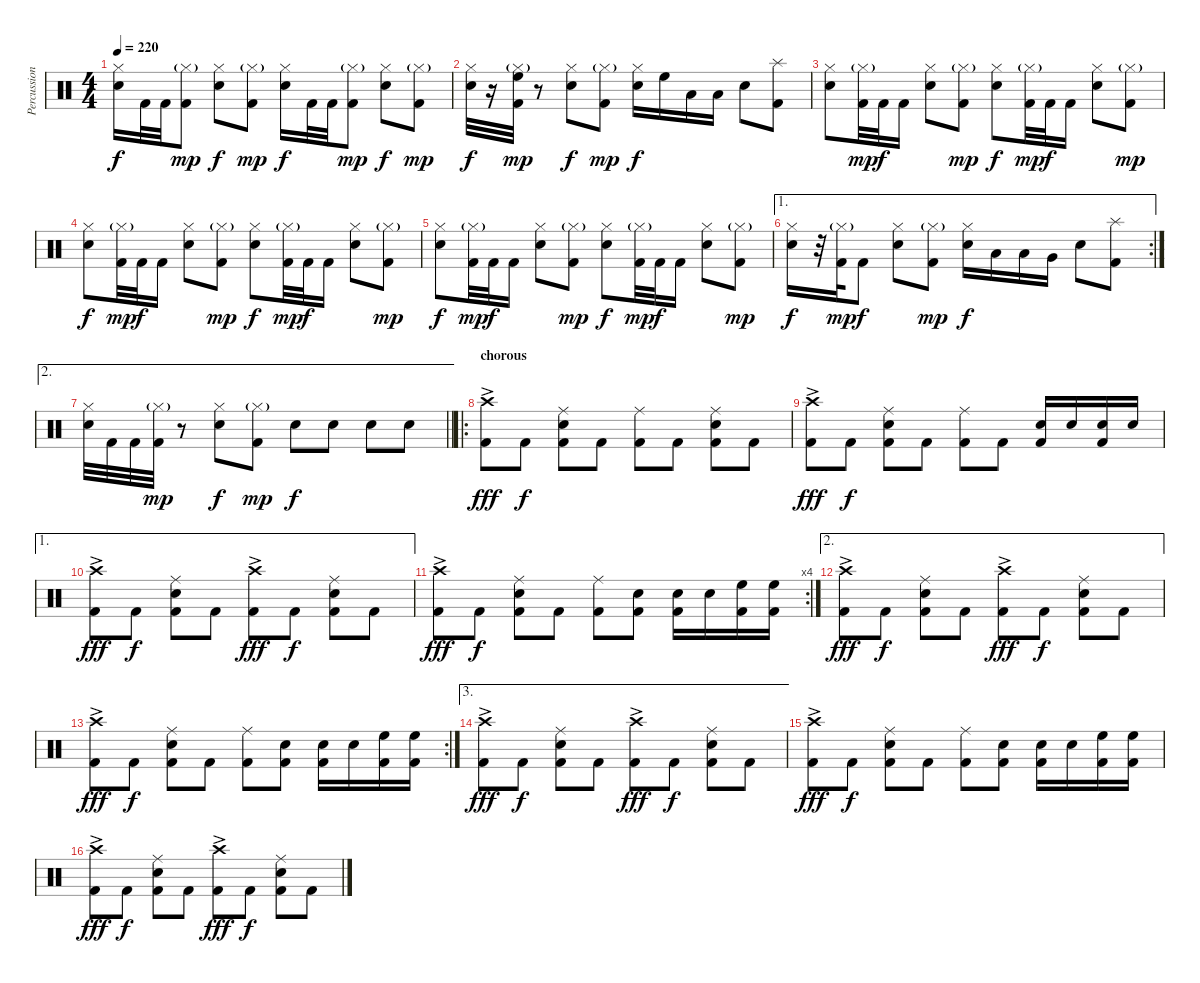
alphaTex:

\track ("Percussion" "Percussion") {instrument percussion}
\staff {score}
\articulation defaults
\ts (4 4)
\tempo 220
\clef neutral
\ks c
("Hi-Hat (closed)" "Electric Snare (hit)").16{dy f} "Kick (hit) 2".32 "Kick (hit) 2".32 ("Hi-Hat (closed)"{g} "Kick (hit) 2").8{dy mp} ("Hi-Hat (closed)" "Electric Snare (hit)").8{dy f} ("Hi-Hat (closed)"{g} "Kick (hit) 2").8{dy mp} ("Hi-Hat (closed)" "Electric Snare (hit)").16{dy f} "Kick (hit) 2".32 "Kick (hit) 2".32 ("Hi-Hat (closed)"{g} "Kick (hit) 2").8{dy mp} ("Hi-Hat (closed)" "Electric Snare (hit)").8{dy f} ("Hi-Hat (closed)"{g} "Kick (hit) 2").8{dy mp} |
("Hi-Hat (closed)" "Electric Snare (hit)").32{dy f} r.16 ("Hi-Hat (closed)"{g} "High Floor Tom (hit)" "Kick (hit) 2").32{dy mp} r.8 ("Hi-Hat (closed)" "Electric Snare (hit)").8{dy f} ("Hi-Hat (closed)"{g} "Kick (hit) 2").8{dy mp} ("Hi-Hat (closed)" "Electric Snare (hit)").16{dy f} "High Floor Tom (hit)".16 "Low Tom (hit)".16 "Low Tom (hit)".16 "Electric Snare (hit)".8 ("Splash (hit)" "Kick (hit) 2").8 |
("Hi-Hat (closed)" "Electric Snare (hit)").8 ("Hi-Hat (closed)"{g} "Kick (hit) 2").32{dy mp} "Kick (hit) 2".32{dy f} "Kick (hit) 2".16 ("Hi-Hat (closed)" "Electric Snare (hit)").8 ("Hi-Hat (closed)"{g} "Kick (hit) 2").8{dy mp} ("Hi-Hat (closed)" "Electric Snare (hit)").8{dy f} ("Hi-Hat (closed)"{g} "Kick (hit) 2").32{dy mp} "Kick (hit) 2".32{dy f} "Kick (hit) 2".16 ("Hi-Hat (closed)" "Electric Snare (hit)").8 ("Hi-Hat (closed)"{g} "Kick (hit) 2").8{dy mp} |
("Hi-Hat (closed)" "Electric Snare (hit)").8{dy f} ("Hi-Hat (closed)"{g} "Kick (hit) 2").32{dy mp} "Kick (hit) 2".32{dy f} "Kick (hit) 2".16 ("Hi-Hat (closed)" "Electric Snare (hit)").8 ("Hi-Hat (closed)"{g} "Kick (hit) 2").8{dy mp} ("Hi-Hat (closed)" "Electric Snare (hit)").8{dy f} ("Hi-Hat (closed)"{g} "Kick (hit) 2").32{dy mp} "Kick (hit) 2".32{dy f} "Kick (hit) 2".16 ("Hi-Hat (closed)" "Electric Snare (hit)").8 ("Hi-Hat (closed)"{g} "Kick (hit) 2").8{dy mp} |
("Hi-Hat (closed)" "Electric Snare (hit)").8{dy f} ("Hi-Hat (closed)"{g} "Kick (hit) 2").32{dy mp} "Kick (hit) 2".32{dy f} "Kick (hit) 2".16 ("Hi-Hat (closed)" "Electric Snare (hit)").8 ("Hi-Hat (closed)"{g} "Kick (hit) 2").8{dy mp} ("Hi-Hat (closed)" "Electric Snare (hit)").8{dy f} ("Hi-Hat (closed)"{g} "Kick (hit) 2").32{dy mp} "Kick (hit) 2".32{dy f} "Kick (hit) 2".16 ("Hi-Hat (closed)" "Electric Snare (hit)").8 ("Hi-Hat (closed)"{g} "Kick (hit) 2").8{dy mp} |
\ae 1
\rc 2
("Hi-Hat (closed)" "Electric Snare (hit)").16{dy f} r.32 ("Hi-Hat (closed)"{g} "Kick (hit) 2").32{dy mp} "Kick (hit) 2".8{dy f} ("Hi-Hat (closed)" "Electric Snare (hit)").8 ("Hi-Hat (closed)"{g} "Kick (hit) 2").8{dy mp} ("Hi-Hat (closed)" "Electric Snare (hit)").16{dy f} "Low Tom (hit)".16 "Low Tom (hit)".16 "Very Low Tom (hit)".16 "Electric Snare (hit)".8 ("Splash (hit)" "Kick (hit) 2").8 |
\ae 2
\barLineRight lightlight
("Hi-Hat (closed)" "Electric Snare (hit)").32 "Kick (hit) 2".32 "Kick (hit) 2".32 ("Hi-Hat (closed)"{g} "Kick (hit) 2").32{dy mp} r.8 ("Hi-Hat (closed)" "Electric Snare (hit)").8{dy f} ("Hi-Hat (closed)"{g} "Kick (hit) 2").8{dy mp} "Electric Snare (hit)".8{dy f} "Electric Snare (hit)".8 "Electric Snare (hit)".8 "Electric Snare (hit)".8 |
\ro
\section ("" "chorous")
("Crash high (hit)"{ac} "Kick (hit) 2").8{dy fff} "Kick (hit) 2".8{dy f} ("Ride (middle)" "Electric Snare (hit)" "Kick (hit) 2").8 "Kick (hit) 2".8 ("Ride (middle)" "Kick (hit) 2").8 "Kick (hit) 2".8 ("Ride (middle)" "Electric Snare (hit)" "Kick (hit) 2").8 "Kick (hit) 2".8 |
("Crash high (hit)"{ac} "Kick (hit) 2").8{dy fff} "Kick (hit) 2".8{dy f} ("Ride (middle)" "Electric Snare (hit)" "Kick (hit) 2").8 "Kick (hit) 2".8 ("Ride (middle)" "Kick (hit) 2").8 "Kick (hit) 2".8 ("Electric Snare (hit)" "Kick (hit) 2").16 "Electric Snare (hit)".16 ("Electric Snare (hit)" "Kick (hit) 2").16 "Electric Snare (hit)".16 |
\ae 1
("Crash high (hit)"{ac} "Kick (hit) 2").8{dy fff} "Kick (hit) 2".8{dy f} ("Ride (middle)" "Electric Snare (hit)" "Kick (hit) 2").8 "Kick (hit) 2".8 ("Crash high (hit)"{ac} "Kick (hit) 2").8{dy fff} "Kick (hit) 2".8{dy f} ("Ride (middle)" "Electric Snare (hit)" "Kick (hit) 2").8 "Kick (hit) 2".8 |
\rc 4
("Crash high (hit)"{ac} "Kick (hit) 2").8{dy fff} "Kick (hit) 2".8{dy f} ("Ride (middle)" "Electric Snare (hit)" "Kick (hit) 2").8 "Kick (hit) 2".8 ("Ride (middle)" "Kick (hit) 2").8 ("Electric Snare (hit)" "Kick (hit) 2").8 ("Electric Snare (hit)" "Kick (hit) 2").16 "Electric Snare (hit)".16 ("High Floor Tom (hit)" "Kick (hit) 2").16 ("High Floor Tom (hit)" "Kick (hit) 2").16 |
\ae 2
("Crash high (hit)"{ac} "Kick (hit) 2").8{dy fff} "Kick (hit) 2".8{dy f} ("Ride (middle)" "Electric Snare (hit)" "Kick (hit) 2").8 "Kick (hit) 2".8 ("Crash high (hit)"{ac} "Kick (hit) 2").8{dy fff} "Kick (hit) 2".8{dy f} ("Ride (middle)" "Electric Snare (hit)" "Kick (hit) 2").8 "Kick (hit) 2".8 |
\rc 2
("Crash high (hit)"{ac} "Kick (hit) 2").8{dy fff} "Kick (hit) 2".8{dy f} ("Ride (middle)" "Electric Snare (hit)" "Kick (hit) 2").8 "Kick (hit) 2".8 ("Ride (middle)" "Kick (hit) 2").8 ("Electric Snare (hit)" "Kick (hit) 2").8 ("Electric Snare (hit)" "Kick (hit) 2").16 "Electric Snare (hit)".16 ("High Floor Tom (hit)" "Kick (hit) 2").16 ("High Floor Tom (hit)" "Kick (hit) 2").16 |
\ae 3
("Crash high (hit)"{ac} "Kick (hit) 2").8{dy fff} "Kick (hit) 2".8{dy f} ("Ride (middle)" "Electric Snare (hit)" "Kick (hit) 2").8 "Kick (hit) 2".8 ("Crash high (hit)"{ac} "Kick (hit) 2").8{dy fff} "Kick (hit) 2".8{dy f} ("Ride (middle)" "Electric Snare (hit)" "Kick (hit) 2").8 "Kick (hit) 2".8 |
("Crash high (hit)"{ac} "Kick (hit) 2").8{dy fff} "Kick (hit) 2".8{dy f} ("Ride (middle)" "Electric Snare (hit)" "Kick (hit) 2").8 "Kick (hit) 2".8 ("Ride (middle)" "Kick (hit) 2").8 ("Electric Snare (hit)" "Kick (hit) 2").8 ("Electric Snare (hit)" "Kick (hit) 2").16 "Electric Snare (hit)".16 ("High Floor Tom (hit)" "Kick (hit) 2").16 ("High Floor Tom (hit)" "Kick (hit) 2").16 |
("Crash high (hit)"{ac} "Kick (hit) 2").8{dy fff} "Kick (hit) 2".8{dy f} ("Ride (middle)" "Electric Snare (hit)" "Kick (hit) 2").8 "Kick (hit) 2".8 ("Crash high (hit)"{ac} "Kick (hit) 2").8{dy fff} "Kick (hit) 2".8{dy f} ("Ride (middle)" "Electric Snare (hit)" "Kick (hit) 2").8 "Kick (hit) 2".8
